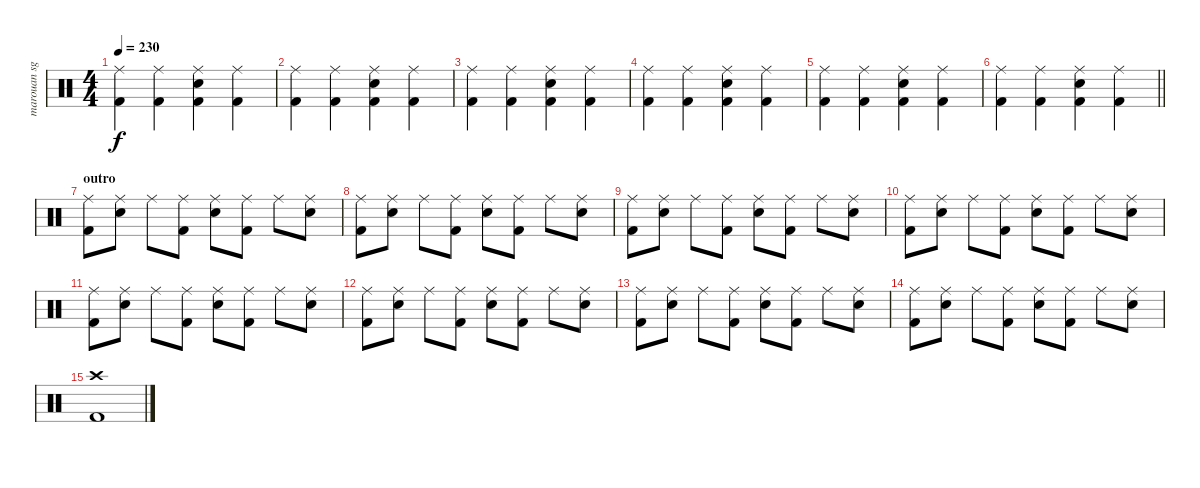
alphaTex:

\track ("marouan sghir" "marouan sg") {instrument percussion}
\staff {score}
\articulation defaults
\ts (4 4)
\tempo 230
\clef neutral
\ks c
("Ride (middle)" "Kick (hit) 2").4{dy f} ("Ride (middle)" "Kick (hit) 2").4 ("Ride (middle)" "Snare (hit) 2" "Kick (hit) 2").4 ("Ride (middle)" "Kick (hit) 2").4 |
("Ride (middle)" "Kick (hit) 2").4 ("Ride (middle)" "Kick (hit) 2").4 ("Ride (middle)" "Snare (hit) 2" "Kick (hit) 2").4 ("Ride (middle)" "Kick (hit) 2").4 |
("Ride (middle)" "Kick (hit) 2").4 ("Ride (middle)" "Kick (hit) 2").4 ("Ride (middle)" "Snare (hit) 2" "Kick (hit) 2").4 ("Ride (middle)" "Kick (hit) 2").4 |
("Ride (middle)" "Kick (hit) 2").4 ("Ride (middle)" "Kick (hit) 2").4 ("Ride (middle)" "Snare (hit) 2" "Kick (hit) 2").4 ("Ride (middle)" "Kick (hit) 2").4 |
("Ride (middle)" "Kick (hit) 2").4 ("Ride (middle)" "Kick (hit) 2").4 ("Ride (middle)" "Snare (hit) 2" "Kick (hit) 2").4 ("Ride (middle)" "Kick (hit) 2").4 |
\barLineRight lightlight
("Ride (middle)" "Kick (hit) 2").4 ("Ride (middle)" "Kick (hit) 2").4 ("Ride (middle)" "Snare (hit) 2" "Kick (hit) 2").4 ("Ride (middle)" "Kick (hit) 2").4 |
\section ("" "outro")
("Ride (middle)" "Kick (hit) 2").8 ("Ride (middle)" "Snare (hit) 2").8 "Ride (middle)".8 ("Ride (middle)" "Kick (hit) 2").8 ("Ride (middle)" "Snare (hit) 2").8 ("Ride (middle)" "Kick (hit) 2").8 "Ride (middle)".8 ("Ride (middle)" "Snare (hit) 2").8 |
("Ride (middle)" "Kick (hit) 2").8 ("Ride (middle)" "Snare (hit) 2").8 "Ride (middle)".8 ("Ride (middle)" "Kick (hit) 2").8 ("Ride (middle)" "Snare (hit) 2").8 ("Ride (middle)" "Kick (hit) 2").8 "Ride (middle)".8 ("Ride (middle)" "Snare (hit) 2").8 |
("Ride (middle)" "Kick (hit) 2").8 ("Ride (middle)" "Snare (hit) 2").8 "Ride (middle)".8 ("Ride (middle)" "Kick (hit) 2").8 ("Ride (middle)" "Snare (hit) 2").8 ("Ride (middle)" "Kick (hit) 2").8 "Ride (middle)".8 ("Ride (middle)" "Snare (hit) 2").8 |
("Ride (middle)" "Kick (hit) 2").8 ("Ride (middle)" "Snare (hit) 2").8 "Ride (middle)".8 ("Ride (middle)" "Kick (hit) 2").8 ("Ride (middle)" "Snare (hit) 2").8 ("Ride (middle)" "Kick (hit) 2").8 "Ride (middle)".8 ("Ride (middle)" "Snare (hit) 2").8 |
("Ride (middle)" "Kick (hit) 2").8 ("Ride (middle)" "Snare (hit) 2").8 "Ride (middle)".8 ("Ride (middle)" "Kick (hit) 2").8 ("Ride (middle)" "Snare (hit) 2").8 ("Ride (middle)" "Kick (hit) 2").8 "Ride (middle)".8 ("Ride (middle)" "Snare (hit) 2").8 |
("Ride (middle)" "Kick (hit) 2").8 ("Ride (middle)" "Snare (hit) 2").8 "Ride (middle)".8 ("Ride (middle)" "Kick (hit) 2").8 ("Ride (middle)" "Snare (hit) 2").8 ("Ride (middle)" "Kick (hit) 2").8 "Ride (middle)".8 ("Ride (middle)" "Snare (hit) 2").8 |
("Ride (middle)" "Kick (hit) 2").8 ("Ride (middle)" "Snare (hit) 2").8 "Ride (middle)".8 ("Ride (middle)" "Kick (hit) 2").8 ("Ride (middle)" "Snare (hit) 2").8 ("Ride (middle)" "Kick (hit) 2").8 "Ride (middle)".8 ("Ride (middle)" "Snare (hit) 2").8 |
("Ride (middle)" "Kick (hit) 2").8 ("Ride (middle)" "Snare (hit) 2").8 "Ride (middle)".8 ("Ride (middle)" "Kick (hit) 2").8 ("Ride (middle)" "Snare (hit) 2").8 ("Ride (middle)" "Kick (hit) 2").8 "Ride (middle)".8 ("Ride (middle)" "Snare (hit) 2").8 |
("Crash high (hit)" "Kick (hit) 2").1
